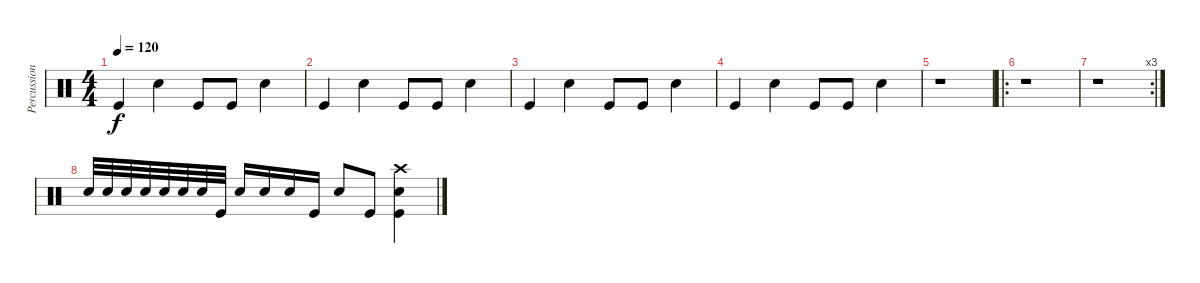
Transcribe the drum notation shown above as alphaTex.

\track ("Percussion" "Percussion") {instrument percussion}
\staff {score}
\articulation defaults
\ts (4 4)
\tempo 120
\clef neutral
\ks c "Kick (hit)".4{dy f} "Snare (hit) 2".4 "Kick (hit)".8 "Kick (hit)".8 "Snare (hit) 2".4
|
"Kick (hit)".4 "Snare (hit) 2".4 "Kick (hit)".8 "Kick (hit)".8 "Snare (hit) 2".4 |
"Kick (hit)".4 "Snare (hit) 2".4 "Kick (hit)".8 "Kick (hit)".8 "Snare (hit) 2".4 |
"Kick (hit)".4 "Snare (hit) 2".4 "Kick (hit)".8 "Kick (hit)".8 "Snare (hit) 2".4 |
r.1 |
\ro
r.1 |
\rc 3
r.1 |
"Snare (hit) 2".32 "Snare (hit) 2".32 "Snare (hit) 2".32 "Snare (hit) 2".32 "Snare (hit) 2".32 "Snare (hit) 2".32 "Snare (hit) 2".32 "Kick (hit)".32 "Snare (hit) 2".16 "Snare (hit) 2".16 "Snare (hit) 2".16 "Kick (hit)".16 "Snare (hit) 2".8 "Kick (hit)".8 ("Crash high (hit)" "Kick (hit)" "Snare (hit) 2").4
